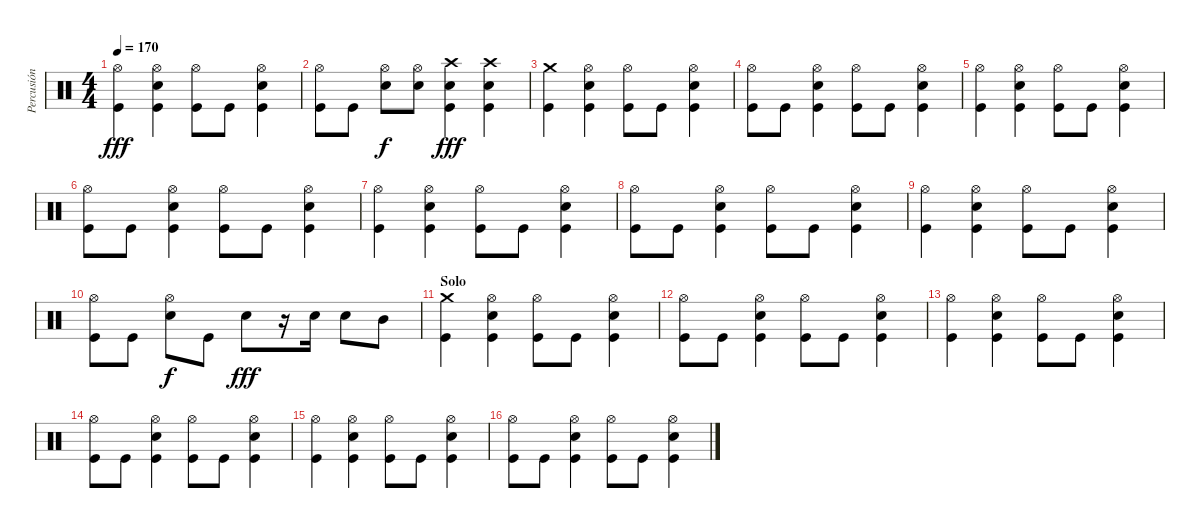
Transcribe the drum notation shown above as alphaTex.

\track ("Percusión" "Percusión") {instrument percussion}
\staff {score}
\articulation defaults
\ts (4 4)
\tempo 170
\clef neutral
\ks c
("Hi-Hat (open)" "Kick (hit)").4{dy fff} ("Hi-Hat (open)" "Electric Snare (hit)" "Kick (hit)").4 ("Hi-Hat (open)" "Kick (hit)").8 "Kick (hit)".8 ("Hi-Hat (open)" "Electric Snare (hit)" "Kick (hit)").4 |
("Hi-Hat (open)" "Kick (hit)").8 "Kick (hit)".8 ("Hi-Hat (open)" "Electric Snare (hit)").8{dy f} ("Hi-Hat (open)" "Electric Snare (hit)").8 ("Crash high (hit)" "Electric Snare (hit)" "Kick (hit)").4{dy fff} ("Crash high (hit)" "Electric Snare (hit)" "Kick (hit)").4 |
("Crash medium (hit)" "Kick (hit)").4 ("Hi-Hat (open)" "Electric Snare (hit)" "Kick (hit)").4 ("Hi-Hat (open)" "Kick (hit)").8 "Kick (hit)".8 ("Hi-Hat (open)" "Electric Snare (hit)" "Kick (hit)").4 |
("Hi-Hat (open)" "Kick (hit)").8 "Kick (hit)".8 ("Hi-Hat (open)" "Electric Snare (hit)" "Kick (hit)").4 ("Hi-Hat (open)" "Kick (hit)").8 "Kick (hit)".8 ("Hi-Hat (open)" "Electric Snare (hit)" "Kick (hit)").4 |
("Hi-Hat (open)" "Kick (hit)").4 ("Hi-Hat (open)" "Electric Snare (hit)" "Kick (hit)").4 ("Hi-Hat (open)" "Kick (hit)").8 "Kick (hit)".8 ("Hi-Hat (open)" "Electric Snare (hit)" "Kick (hit)").4 |
("Hi-Hat (open)" "Kick (hit)").8 "Kick (hit)".8 ("Hi-Hat (open)" "Electric Snare (hit)" "Kick (hit)").4 ("Hi-Hat (open)" "Kick (hit)").8 "Kick (hit)".8 ("Hi-Hat (open)" "Electric Snare (hit)" "Kick (hit)").4 |
("Hi-Hat (open)" "Kick (hit)").4 ("Hi-Hat (open)" "Electric Snare (hit)" "Kick (hit)").4 ("Hi-Hat (open)" "Kick (hit)").8 "Kick (hit)".8 ("Hi-Hat (open)" "Electric Snare (hit)" "Kick (hit)").4 |
("Hi-Hat (open)" "Kick (hit)").8 "Kick (hit)".8 ("Hi-Hat (open)" "Electric Snare (hit)" "Kick (hit)").4 ("Hi-Hat (open)" "Kick (hit)").8 "Kick (hit)".8 ("Hi-Hat (open)" "Electric Snare (hit)" "Kick (hit)").4 |
("Hi-Hat (open)" "Kick (hit)").4 ("Hi-Hat (open)" "Electric Snare (hit)" "Kick (hit)").4 ("Hi-Hat (open)" "Kick (hit)").8 "Kick (hit)".8 ("Hi-Hat (open)" "Electric Snare (hit)" "Kick (hit)").4 |
("Hi-Hat (open)" "Kick (hit)").8 "Kick (hit)".8 ("Hi-Hat (open)" "Electric Snare (hit)").8{dy f} "Kick (hit)".8 "Electric Snare (hit)".8{dy fff} r.16 "Electric Snare (hit)".16 "Electric Snare (hit)".8 "Mid Tom (hit)".8 |
\section ("" "Solo")
("Crash medium (hit)" "Kick (hit)").4 ("Hi-Hat (open)" "Electric Snare (hit)" "Kick (hit)").4 ("Hi-Hat (open)" "Kick (hit)").8 "Kick (hit)".8 ("Hi-Hat (open)" "Electric Snare (hit)" "Kick (hit)").4 |
("Hi-Hat (open)" "Kick (hit)").8 "Kick (hit)".8 ("Hi-Hat (open)" "Electric Snare (hit)" "Kick (hit)").4 ("Hi-Hat (open)" "Kick (hit)").8 "Kick (hit)".8 ("Hi-Hat (open)" "Electric Snare (hit)" "Kick (hit)").4 |
("Hi-Hat (open)" "Kick (hit)").4 ("Hi-Hat (open)" "Electric Snare (hit)" "Kick (hit)").4 ("Hi-Hat (open)" "Kick (hit)").8 "Kick (hit)".8 ("Hi-Hat (open)" "Electric Snare (hit)" "Kick (hit)").4 |
("Hi-Hat (open)" "Kick (hit)").8 "Kick (hit)".8 ("Hi-Hat (open)" "Electric Snare (hit)" "Kick (hit)").4 ("Hi-Hat (open)" "Kick (hit)").8 "Kick (hit)".8 ("Hi-Hat (open)" "Electric Snare (hit)" "Kick (hit)").4 |
("Hi-Hat (open)" "Kick (hit)").4 ("Hi-Hat (open)" "Electric Snare (hit)" "Kick (hit)").4 ("Hi-Hat (open)" "Kick (hit)").8 "Kick (hit)".8 ("Hi-Hat (open)" "Electric Snare (hit)" "Kick (hit)").4 |
("Hi-Hat (open)" "Kick (hit)").8 "Kick (hit)".8 ("Hi-Hat (open)" "Electric Snare (hit)" "Kick (hit)").4 ("Hi-Hat (open)" "Kick (hit)").8 "Kick (hit)".8 ("Hi-Hat (open)" "Electric Snare (hit)" "Kick (hit)").4
